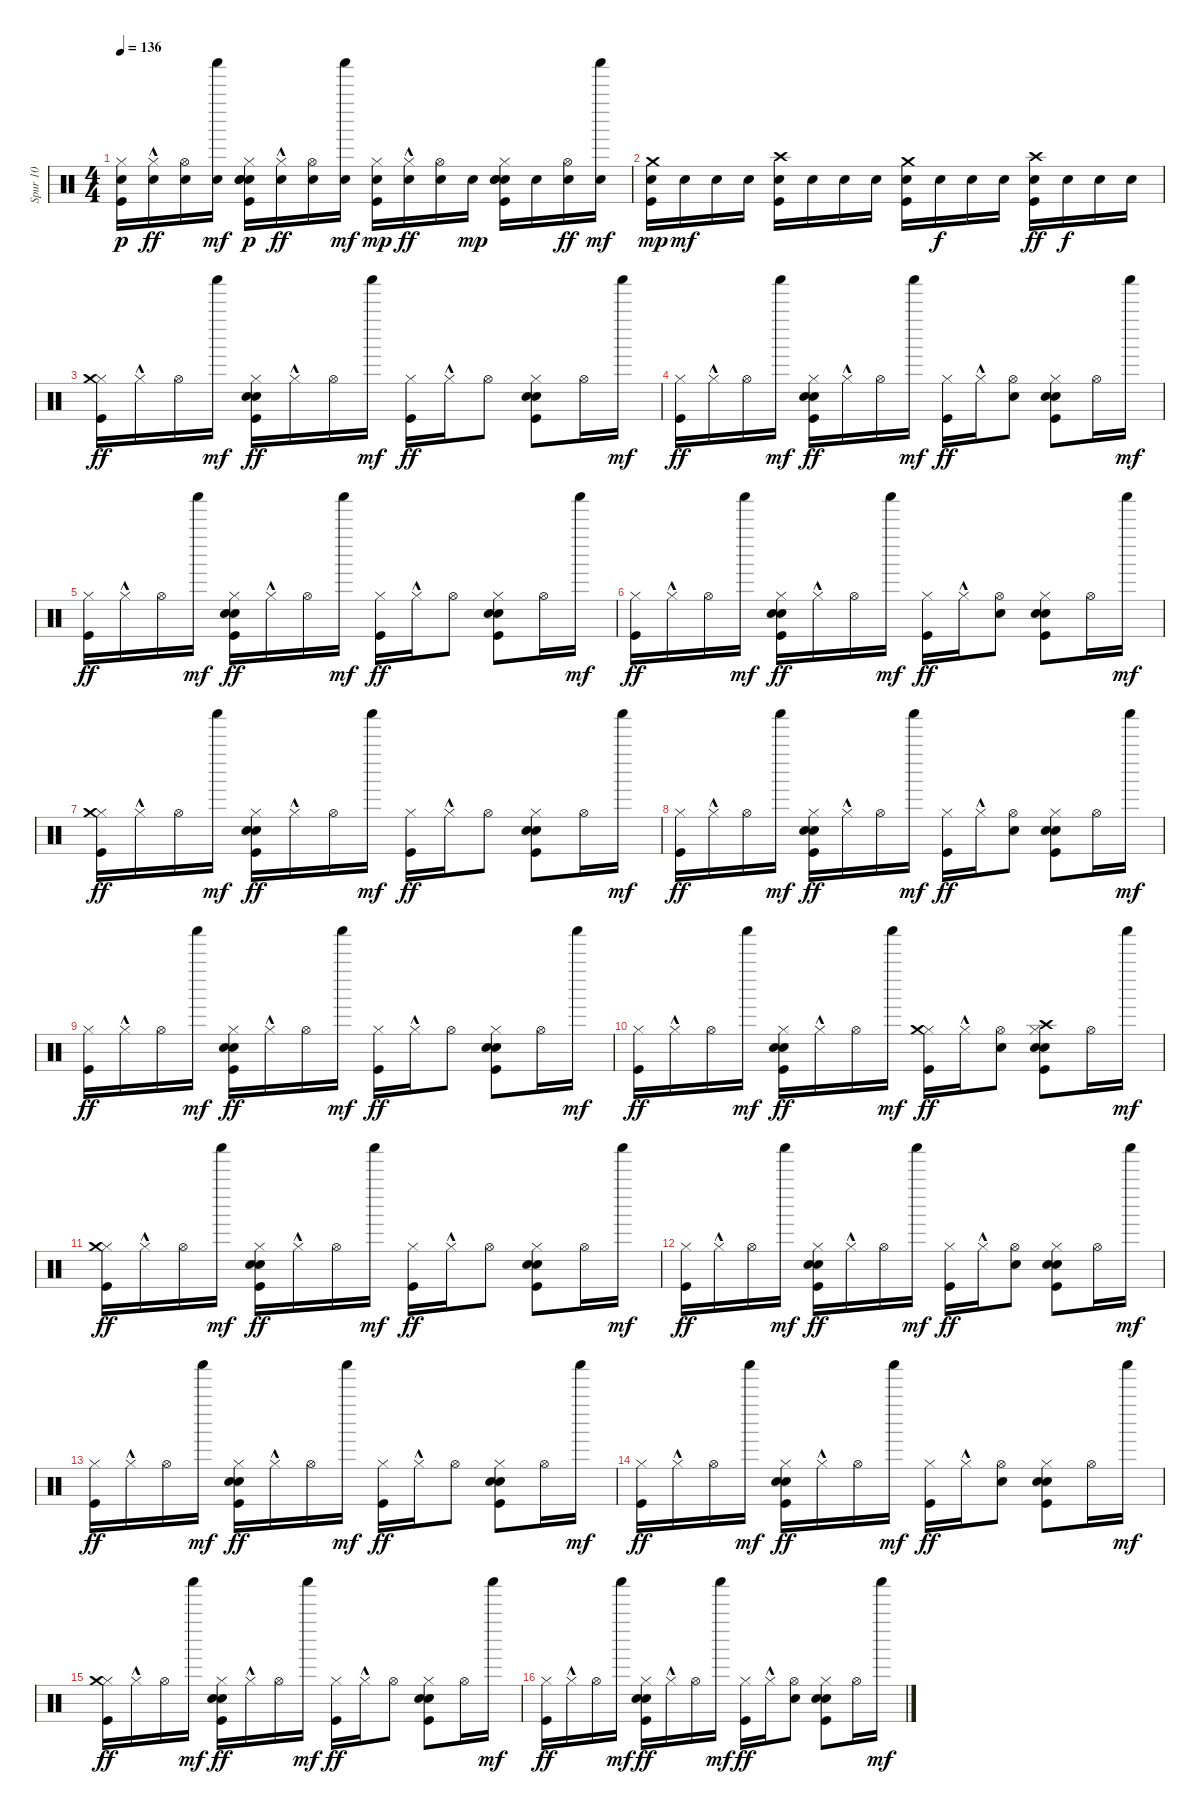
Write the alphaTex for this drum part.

\track ("Spur 10" "Spur 10") {instrument percussion}
\staff {score}
\articulation defaults
\ts (4 4)
\tempo 136
\clef neutral
\ks c
("Kick (hit)" "Snare (hit) 2" "Hi-Hat (closed)").16{dy p} ("Snare (hit) 2" "Hi-Hat (closed)"{hac}).16{dy ff} ("Snare (hit) 2" "Hi-Hat (open)").16 ("Snare (hit) 2" "Shaker (hit)").16{dy mf} ("Kick (hit)" "Electric Snare (hit)" "Snare (hit) 2" "Hi-Hat (closed)" "Hand Clap (hit)").16{dy p} ("Snare (hit) 2" "Hi-Hat (closed)"{hac}).16{dy ff} ("Snare (hit) 2" "Hi-Hat (open)").16 ("Snare (hit) 2" "Shaker (hit)").16{dy mf} ("Kick (hit)" "Snare (hit) 2" "Hi-Hat (closed)").16{dy mp} ("Snare (hit) 2" "Hi-Hat (closed)"{hac}).16{dy ff} ("Snare (hit) 2" "Hi-Hat (open)").16 "Snare (hit) 2".16{dy mp} ("Kick (hit)" "Electric Snare (hit)" "Snare (hit) 2" "Hi-Hat (closed)" "Hand Clap (hit)").16 "Snare (hit) 2".16 ("Snare (hit) 2" "Hi-Hat (open)").16{dy ff} ("Snare (hit) 2" "Shaker (hit)").16{dy mf} |
("Kick (hit)" "Snare (hit) 2" "Crash medium (hit)").16{dy mp} "Snare (hit) 2".16{dy mf} "Snare (hit) 2".16 "Snare (hit) 2".16 ("Kick (hit)" "Snare (hit) 2" "Crash high (hit)").16 "Snare (hit) 2".16 "Snare (hit) 2".16 "Snare (hit) 2".16 ("Kick (hit)" "Snare (hit) 2" "Crash medium (hit)").16 "Snare (hit) 2".16{dy f} "Snare (hit) 2".16 "Snare (hit) 2".16 ("Kick (hit)" "Snare (hit) 2" "Crash high (hit)").16{dy ff} "Snare (hit) 2".16{dy f} "Snare (hit) 2".16 "Snare (hit) 2".16 |
("Kick (hit)" "Hi-Hat (closed)" "Crash medium (hit)").16{dy ff} "Hi-Hat (closed)"{hac}.16 "Hi-Hat (open)".16 "Shaker (hit)".16{dy mf} ("Kick (hit)" "Electric Snare (hit)" "Hi-Hat (closed)" "Hand Clap (hit)").16{dy ff} "Hi-Hat (closed)"{hac}.16 "Hi-Hat (open)".16 "Shaker (hit)".16{dy mf} ("Kick (hit)" "Hi-Hat (closed)").16{dy ff} "Hi-Hat (closed)"{hac}.16 "Hi-Hat (open)".8 ("Kick (hit)" "Electric Snare (hit)" "Hi-Hat (closed)" "Hand Clap (hit)").8 "Hi-Hat (open)".16 "Shaker (hit)".16{dy mf} |
("Kick (hit)" "Hi-Hat (closed)").16{dy ff} "Hi-Hat (closed)"{hac}.16 "Hi-Hat (open)".16 "Shaker (hit)".16{dy mf} ("Kick (hit)" "Electric Snare (hit)" "Hi-Hat (closed)" "Hand Clap (hit)").16{dy ff} "Hi-Hat (closed)"{hac}.16 "Hi-Hat (open)".16 "Shaker (hit)".16{dy mf} ("Kick (hit)" "Hi-Hat (closed)").16{dy ff} "Hi-Hat (closed)"{hac}.16 ("Hi-Hat (open)" "Hand Clap (hit)").8 ("Kick (hit)" "Electric Snare (hit)" "Hi-Hat (closed)" "Hand Clap (hit)").8 "Hi-Hat (open)".16 "Shaker (hit)".16{dy mf} |
("Kick (hit)" "Hi-Hat (closed)").16{dy ff} "Hi-Hat (closed)"{hac}.16 "Hi-Hat (open)".16 "Shaker (hit)".16{dy mf} ("Kick (hit)" "Electric Snare (hit)" "Hi-Hat (closed)" "Hand Clap (hit)").16{dy ff} "Hi-Hat (closed)"{hac}.16 "Hi-Hat (open)".16 "Shaker (hit)".16{dy mf} ("Kick (hit)" "Hi-Hat (closed)").16{dy ff} "Hi-Hat (closed)"{hac}.16 "Hi-Hat (open)".8 ("Kick (hit)" "Electric Snare (hit)" "Hi-Hat (closed)" "Hand Clap (hit)").8 "Hi-Hat (open)".16 "Shaker (hit)".16{dy mf} |
("Kick (hit)" "Hi-Hat (closed)").16{dy ff} "Hi-Hat (closed)"{hac}.16 "Hi-Hat (open)".16 "Shaker (hit)".16{dy mf} ("Kick (hit)" "Electric Snare (hit)" "Hi-Hat (closed)" "Hand Clap (hit)").16{dy ff} "Hi-Hat (closed)"{hac}.16 "Hi-Hat (open)".16 "Shaker (hit)".16{dy mf} ("Kick (hit)" "Hi-Hat (closed)").16{dy ff} "Hi-Hat (closed)"{hac}.16 ("Hi-Hat (open)" "Hand Clap (hit)").8 ("Kick (hit)" "Electric Snare (hit)" "Hi-Hat (closed)" "Hand Clap (hit)").8 "Hi-Hat (open)".16 "Shaker (hit)".16{dy mf} |
("Kick (hit)" "Hi-Hat (closed)" "Crash medium (hit)").16{dy ff} "Hi-Hat (closed)"{hac}.16 "Hi-Hat (open)".16 "Shaker (hit)".16{dy mf} ("Kick (hit)" "Electric Snare (hit)" "Hi-Hat (closed)" "Hand Clap (hit)").16{dy ff} "Hi-Hat (closed)"{hac}.16 "Hi-Hat (open)".16 "Shaker (hit)".16{dy mf} ("Kick (hit)" "Hi-Hat (closed)").16{dy ff} "Hi-Hat (closed)"{hac}.16 "Hi-Hat (open)".8 ("Kick (hit)" "Electric Snare (hit)" "Hi-Hat (closed)" "Hand Clap (hit)").8 "Hi-Hat (open)".16 "Shaker (hit)".16{dy mf} |
("Kick (hit)" "Hi-Hat (closed)").16{dy ff} "Hi-Hat (closed)"{hac}.16 "Hi-Hat (open)".16 "Shaker (hit)".16{dy mf} ("Kick (hit)" "Electric Snare (hit)" "Hi-Hat (closed)" "Hand Clap (hit)").16{dy ff} "Hi-Hat (closed)"{hac}.16 "Hi-Hat (open)".16 "Shaker (hit)".16{dy mf} ("Kick (hit)" "Hi-Hat (closed)").16{dy ff} "Hi-Hat (closed)"{hac}.16 ("Hi-Hat (open)" "Hand Clap (hit)").8 ("Kick (hit)" "Electric Snare (hit)" "Hi-Hat (closed)" "Hand Clap (hit)").8 "Hi-Hat (open)".16 "Shaker (hit)".16{dy mf} |
("Kick (hit)" "Hi-Hat (closed)").16{dy ff} "Hi-Hat (closed)"{hac}.16 "Hi-Hat (open)".16 "Shaker (hit)".16{dy mf} ("Kick (hit)" "Electric Snare (hit)" "Hi-Hat (closed)" "Hand Clap (hit)").16{dy ff} "Hi-Hat (closed)"{hac}.16 "Hi-Hat (open)".16 "Shaker (hit)".16{dy mf} ("Kick (hit)" "Hi-Hat (closed)").16{dy ff} "Hi-Hat (closed)"{hac}.16 "Hi-Hat (open)".8 ("Kick (hit)" "Electric Snare (hit)" "Hi-Hat (closed)" "Hand Clap (hit)").8 "Hi-Hat (open)".16 "Shaker (hit)".16{dy mf} |
("Kick (hit)" "Hi-Hat (closed)").16{dy ff} "Hi-Hat (closed)"{hac}.16 "Hi-Hat (open)".16 "Shaker (hit)".16{dy mf} ("Kick (hit)" "Electric Snare (hit)" "Hi-Hat (closed)" "Hand Clap (hit)").16{dy ff} "Hi-Hat (closed)"{hac}.16 "Hi-Hat (open)".16 "Shaker (hit)".16{dy mf} ("Kick (hit)" "Hi-Hat (closed)" "Crash medium (hit)").16{dy ff} "Hi-Hat (closed)"{hac}.16 ("Hi-Hat (open)" "Hand Clap (hit)").8 ("Kick (hit)" "Electric Snare (hit)" "Hi-Hat (closed)" "Crash high (hit)" "Hand Clap (hit)").8 "Hi-Hat (open)".16 "Shaker (hit)".16{dy mf} |
("Kick (hit)" "Hi-Hat (closed)" "Crash medium (hit)").16{dy ff} "Hi-Hat (closed)"{hac}.16 "Hi-Hat (open)".16 "Shaker (hit)".16{dy mf} ("Kick (hit)" "Electric Snare (hit)" "Hi-Hat (closed)" "Hand Clap (hit)").16{dy ff} "Hi-Hat (closed)"{hac}.16 "Hi-Hat (open)".16 "Shaker (hit)".16{dy mf} ("Kick (hit)" "Hi-Hat (closed)").16{dy ff} "Hi-Hat (closed)"{hac}.16 "Hi-Hat (open)".8 ("Kick (hit)" "Electric Snare (hit)" "Hi-Hat (closed)" "Hand Clap (hit)").8 "Hi-Hat (open)".16 "Shaker (hit)".16{dy mf} |
("Kick (hit)" "Hi-Hat (closed)").16{dy ff} "Hi-Hat (closed)"{hac}.16 "Hi-Hat (open)".16 "Shaker (hit)".16{dy mf} ("Kick (hit)" "Electric Snare (hit)" "Hi-Hat (closed)" "Hand Clap (hit)").16{dy ff} "Hi-Hat (closed)"{hac}.16 "Hi-Hat (open)".16 "Shaker (hit)".16{dy mf} ("Kick (hit)" "Hi-Hat (closed)").16{dy ff} "Hi-Hat (closed)"{hac}.16 ("Hi-Hat (open)" "Hand Clap (hit)").8 ("Kick (hit)" "Electric Snare (hit)" "Hi-Hat (closed)" "Hand Clap (hit)").8 "Hi-Hat (open)".16 "Shaker (hit)".16{dy mf} |
("Kick (hit)" "Hi-Hat (closed)").16{dy ff} "Hi-Hat (closed)"{hac}.16 "Hi-Hat (open)".16 "Shaker (hit)".16{dy mf} ("Kick (hit)" "Electric Snare (hit)" "Hi-Hat (closed)" "Hand Clap (hit)").16{dy ff} "Hi-Hat (closed)"{hac}.16 "Hi-Hat (open)".16 "Shaker (hit)".16{dy mf} ("Kick (hit)" "Hi-Hat (closed)").16{dy ff} "Hi-Hat (closed)"{hac}.16 "Hi-Hat (open)".8 ("Kick (hit)" "Electric Snare (hit)" "Hi-Hat (closed)" "Hand Clap (hit)").8 "Hi-Hat (open)".16 "Shaker (hit)".16{dy mf} |
("Kick (hit)" "Hi-Hat (closed)").16{dy ff} "Hi-Hat (closed)"{hac}.16 "Hi-Hat (open)".16 "Shaker (hit)".16{dy mf} ("Kick (hit)" "Electric Snare (hit)" "Hi-Hat (closed)" "Hand Clap (hit)").16{dy ff} "Hi-Hat (closed)"{hac}.16 "Hi-Hat (open)".16 "Shaker (hit)".16{dy mf} ("Kick (hit)" "Hi-Hat (closed)").16{dy ff} "Hi-Hat (closed)"{hac}.16 ("Hi-Hat (open)" "Hand Clap (hit)").8 ("Kick (hit)" "Electric Snare (hit)" "Hi-Hat (closed)" "Hand Clap (hit)").8 "Hi-Hat (open)".16 "Shaker (hit)".16{dy mf} |
("Kick (hit)" "Hi-Hat (closed)" "Crash medium (hit)").16{dy ff} "Hi-Hat (closed)"{hac}.16 "Hi-Hat (open)".16 "Shaker (hit)".16{dy mf} ("Kick (hit)" "Electric Snare (hit)" "Hi-Hat (closed)" "Hand Clap (hit)").16{dy ff} "Hi-Hat (closed)"{hac}.16 "Hi-Hat (open)".16 "Shaker (hit)".16{dy mf} ("Kick (hit)" "Hi-Hat (closed)").16{dy ff} "Hi-Hat (closed)"{hac}.16 "Hi-Hat (open)".8 ("Kick (hit)" "Electric Snare (hit)" "Hi-Hat (closed)" "Hand Clap (hit)").8 "Hi-Hat (open)".16 "Shaker (hit)".16{dy mf} |
("Kick (hit)" "Hi-Hat (closed)").16{dy ff} "Hi-Hat (closed)"{hac}.16 "Hi-Hat (open)".16 "Shaker (hit)".16{dy mf} ("Kick (hit)" "Electric Snare (hit)" "Hi-Hat (closed)" "Hand Clap (hit)").16{dy ff} "Hi-Hat (closed)"{hac}.16 "Hi-Hat (open)".16 "Shaker (hit)".16{dy mf} ("Kick (hit)" "Hi-Hat (closed)").16{dy ff} "Hi-Hat (closed)"{hac}.16 ("Hi-Hat (open)" "Hand Clap (hit)").8 ("Kick (hit)" "Electric Snare (hit)" "Hi-Hat (closed)" "Hand Clap (hit)").8 "Hi-Hat (open)".16 "Shaker (hit)".16{dy mf}
